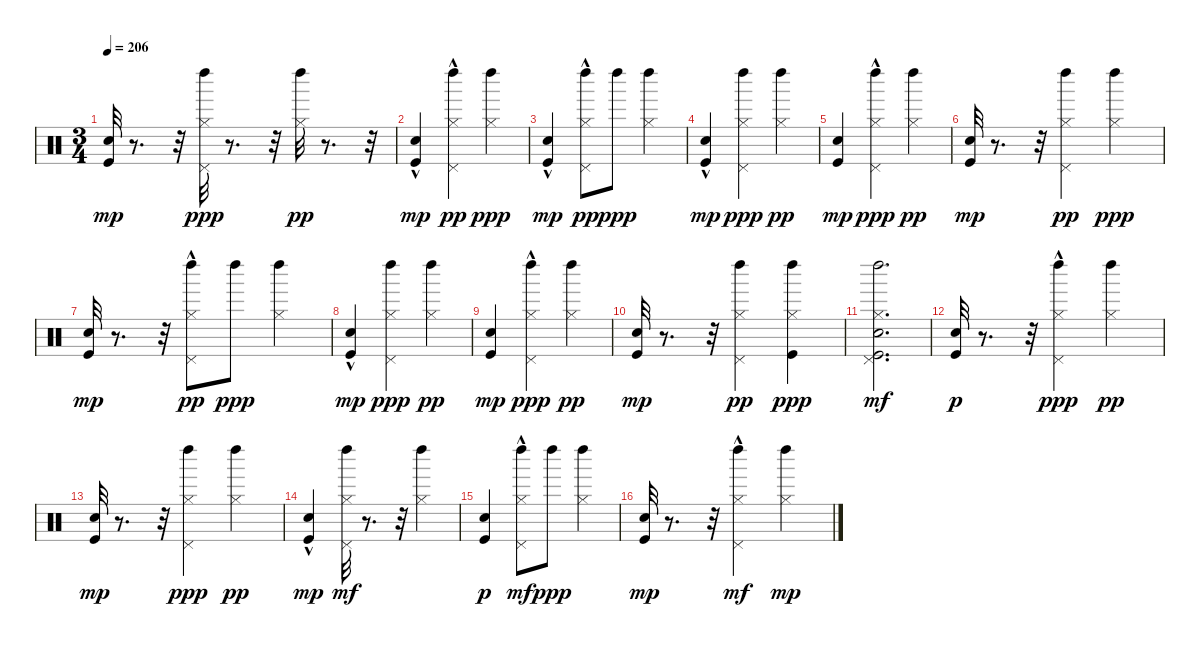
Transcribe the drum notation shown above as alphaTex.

\track "" {instrument percussion}
\staff {score}
\articulation defaults
\ts (3 4)
\tempo 206
\clef neutral
\ks c
("Kick (hit)" "Snare (hit)").32{dy mp} r.8{d} r.32 ("Pedal Hi-Hat (hit)" "Hi-Hat (closed)" "Left Maraca (hit)").32{dy ppp} r.8{d} r.32 ("Hi-Hat (closed)" "Left Maraca (hit)").32{dy pp} r.8{d} r.32 |
("Kick (hit)"{hac} "Snare (hit)"{hac}).4{dy mp} ("Pedal Hi-Hat (hit)"{hac} "Hi-Hat (closed)" "Left Maraca (hit)").4{dy pp} ("Hi-Hat (closed)" "Left Maraca (hit)").4{dy ppp} |
("Kick (hit)"{hac} "Snare (hit)"{hac}).4{dy mp} ("Pedal Hi-Hat (hit)"{hac} "Hi-Hat (closed)" "Left Maraca (hit)").8{dy pp} "Left Maraca (hit)".8{dy ppp} ("Hi-Hat (closed)" "Left Maraca (hit)").4 |
("Kick (hit)" "Snare (hit)"{hac}).4{dy mp} ("Pedal Hi-Hat (hit)" "Hi-Hat (closed)" "Left Maraca (hit)").4{dy ppp} ("Hi-Hat (closed)" "Left Maraca (hit)").4{dy pp} |
("Kick (hit)" "Snare (hit)").4{dy mp} ("Pedal Hi-Hat (hit)"{hac} "Hi-Hat (closed)" "Left Maraca (hit)").4{dy ppp} ("Hi-Hat (closed)" "Left Maraca (hit)").4{dy pp} |
("Kick (hit)" "Snare (hit)").32{dy mp} r.8{d} r.32 ("Pedal Hi-Hat (hit)" "Hi-Hat (closed)" "Left Maraca (hit)").4{dy pp} ("Hi-Hat (closed)" "Left Maraca (hit)").4{dy ppp} |
("Kick (hit)" "Snare (hit)").32{dy mp} r.8{d} r.32 ("Pedal Hi-Hat (hit)"{hac} "Hi-Hat (closed)" "Left Maraca (hit)").8{dy pp} "Left Maraca (hit)".8{dy ppp} ("Hi-Hat (closed)" "Left Maraca (hit)").4 |
("Kick (hit)" "Snare (hit)"{hac}).4{dy mp} ("Pedal Hi-Hat (hit)" "Hi-Hat (closed)" "Left Maraca (hit)").4{dy ppp} ("Hi-Hat (closed)" "Left Maraca (hit)").4{dy pp} |
("Kick (hit)" "Snare (hit)").4{dy mp} ("Pedal Hi-Hat (hit)"{hac} "Hi-Hat (closed)" "Left Maraca (hit)").4{dy ppp} ("Hi-Hat (closed)" "Left Maraca (hit)").4{dy pp} |
("Kick (hit)" "Snare (hit)").32{dy mp} r.8{d} r.32 ("Pedal Hi-Hat (hit)" "Hi-Hat (closed)" "Left Maraca (hit)").4{dy pp} ("Kick (hit)" "Hi-Hat (closed)" "Left Maraca (hit)").4{dy ppp} |
("Pedal Hi-Hat (hit)" "Left Maraca (hit)" "Snare (hit)" "Kick (hit)" "Hi-Hat (closed)").2{d dy mf} |
("Snare (hit)" "Kick (hit)").32{dy p} r.8{d} r.32 ("Hi-Hat (closed)" "Pedal Hi-Hat (hit)"{hac} "Left Maraca (hit)").4{dy ppp} ("Hi-Hat (closed)" "Left Maraca (hit)").4{dy pp} |
("Kick (hit)" "Snare (hit)").32{dy mp} r.8{d} r.32 ("Pedal Hi-Hat (hit)" "Hi-Hat (closed)" "Left Maraca (hit)").4{dy ppp} ("Hi-Hat (closed)" "Left Maraca (hit)").4{dy pp} |
("Kick (hit)"{hac} "Snare (hit)"{hac}).4{dy mp} ("Pedal Hi-Hat (hit)" "Left Maraca (hit)" "Hi-Hat (closed)").32{dy mf} r.8{d} r.32 ("Left Maraca (hit)" "Hi-Hat (closed)").4 |
("Snare (hit)" "Kick (hit)").4{dy p} ("Left Maraca (hit)" "Pedal Hi-Hat (hit)"{hac} "Hi-Hat (closed)").8{dy mf} "Left Maraca (hit)".8{dy ppp} ("Hi-Hat (closed)" "Left Maraca (hit)").4 |
("Kick (hit)" "Snare (hit)").32{dy mp} r.8{d} r.32 ("Pedal Hi-Hat (hit)"{hac} "Left Maraca (hit)" "Hi-Hat (closed)").4{dy mf} ("Left Maraca (hit)" "Hi-Hat (closed)").4{dy mp}
